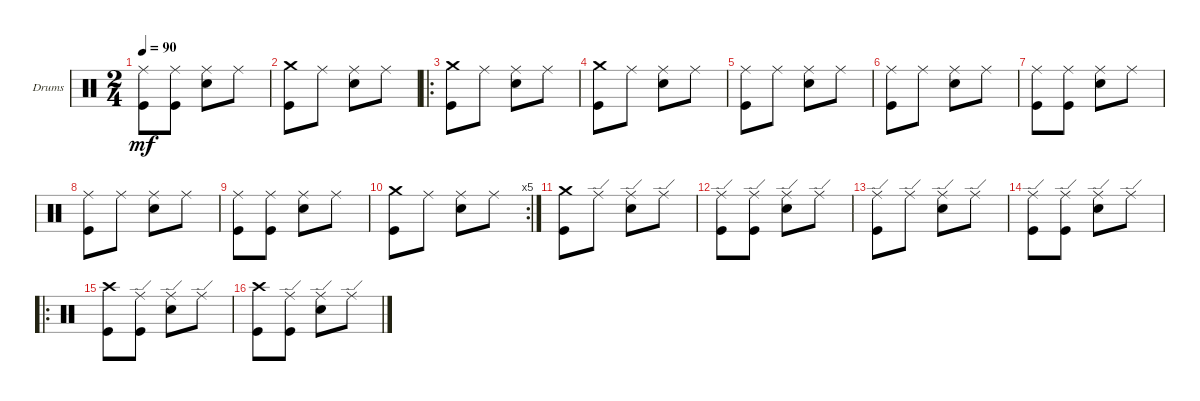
\bracketExtendMode groupsimilarinstruments
\firstSystemTrackNameOrientation horizontal
\otherSystemsTrackNameOrientation horizontal
\track ("Drumkit" "Drums") {instrument percussion}
\staff {score}
\articulation defaults
\ts (2 4)
\tempo 90
\clef neutral
\scale
0.311475
\ks c
("Ride (middle)" "Kick (hit)").8{dy mf} ("Ride (middle)" "Kick (hit)").8 ("Ride (middle)" "Snare (hit) 2").8 "Ride (middle)".8 |
\scale
0.311475 ("Kick (hit)" "Crash medium (hit)").8 "Ride (middle)".8 ("Ride (middle)" "Snare (hit) 2").8 "Ride (middle)".8 |
\ro
\scale
0.377049 ("Kick (hit)" "Crash medium (hit)").8 "Ride (middle)".8 ("Ride (middle)" "Snare (hit) 2").8 "Ride (middle)".8 |
\scale
0.333333 ("Kick (hit)" "Crash medium (hit)").8 "Ride (middle)".8 ("Ride (middle)" "Snare (hit) 2").8 "Ride (middle)".8 |
\scale
0.333333 ("Ride (middle)" "Kick (hit)").8 "Ride (middle)".8 ("Ride (middle)" "Snare (hit) 2").8 "Ride (middle)".8 |
\scale
0.333333 ("Ride (middle)" "Kick (hit)").8 "Ride (middle)".8 ("Ride (middle)" "Snare (hit) 2").8 "Ride (middle)".8 |
\scale
0.333333 ("Ride (middle)" "Kick (hit)").8 ("Ride (middle)" "Kick (hit)").8 ("Ride (middle)" "Snare (hit) 2").8 "Ride (middle)".8 |
\scale
0.333333 ("Ride (middle)" "Kick (hit)").8 "Ride (middle)".8 ("Ride (middle)" "Snare (hit) 2").8 "Ride (middle)".8 |
\scale
0.333333 ("Kick (hit)" "Ride (middle)").8 ("Ride (middle)" "Kick (hit)").8 ("Ride (middle)" "Snare (hit) 2").8 "Ride (middle)".8 |
\rc 5
\scale
0.355932 ("Crash medium (hit)" "Kick (hit)").8 "Ride (middle)".8 ("Ride (middle)" "Snare (hit) 2").8 "Ride (middle)".8 |
\scale
0.322034 ("Kick (hit)" "Crash medium (hit)").8 "Ride (edge)".8 ("Snare (hit) 2" "Ride (edge)").8 "Ride (edge)".8 |
\scale
0.322034 ("Kick (hit)" "Ride (edge)").8 ("Kick (hit)" "Ride (edge)").8 ("Snare (hit) 2" "Ride (edge)").8 "Ride (edge)".8 |
\scale
0.311475 ("Kick (hit)" "Ride (edge)").8 "Ride (edge)".8 ("Snare (hit) 2" "Ride (edge)").8 "Ride (edge)".8 |
\scale
0.311475 ("Kick (hit)" "Ride (edge)").8 ("Kick (hit)" "Ride (edge)").8 ("Snare (hit) 2" "Ride (edge)").8 "Ride (edge)".8 |
\ro
\scale
0.377049 ("Kick (hit)" "Crash high (hit)").8 ("Kick (hit)" "Ride (edge)").8 ("Snare (hit) 2" "Ride (edge)").8 "Ride (edge)".8 |
\scale
0.333333 ("Kick (hit)" "Crash high (hit)").8 ("Kick (hit)" "Ride (edge)").8 ("Snare (hit) 2" "Ride (edge)").8 "Ride (edge)".8
